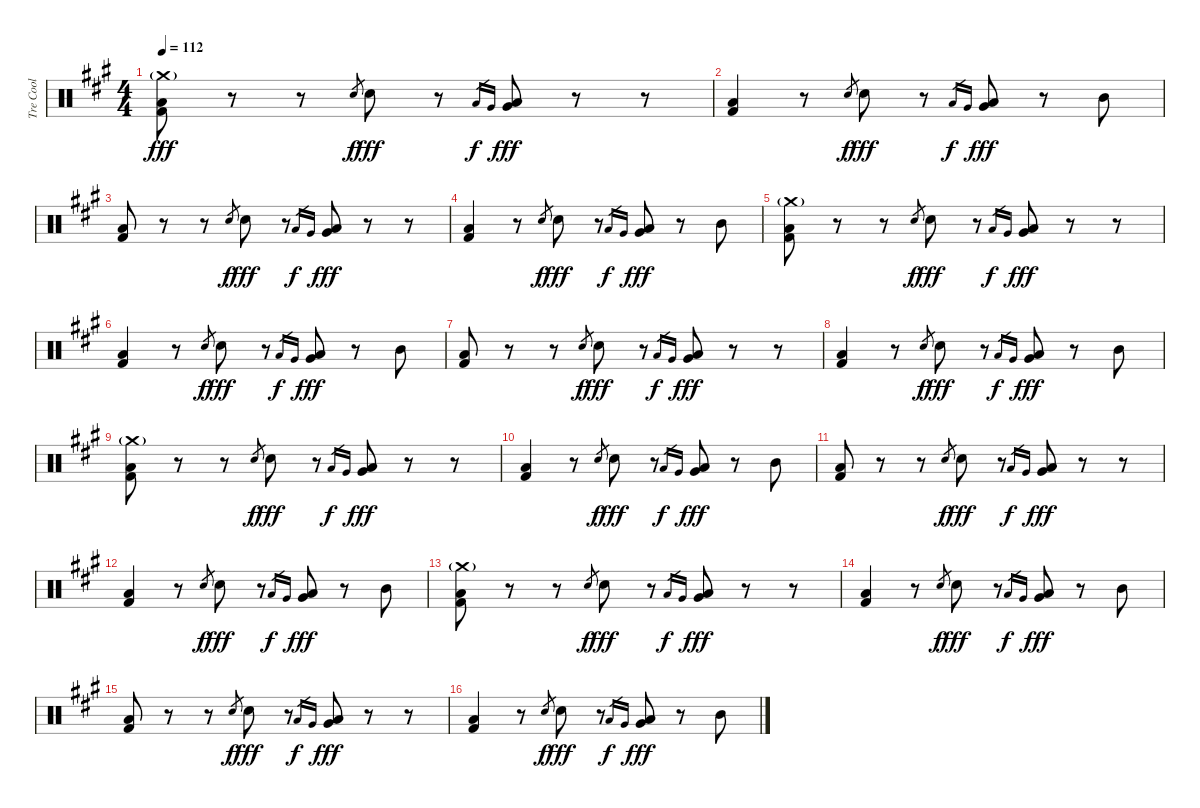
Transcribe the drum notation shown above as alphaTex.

\track ("Tre Cool" "Tre Cool") {instrument percussion}
\staff {score}
\articulation defaults
\ts (4 4)
\tempo 112
\clef neutral
\ks a
("Crash medium (hit)"{g} "Low Floor Tom (hit)" "Kick (hit) 2").8{dy fff} r.8 r.8 "Electric Snare (hit)".8{gr dy f} "Electric Snare (hit)".8{dy fff} r.8 "Low Floor Tom (hit)".16{gr dy f} "Very Low Tom (hit)".16{gr} ("Low Floor Tom (hit)" "Very Low Tom (hit)").8{dy fff} r.8 r.8 |
("Low Floor Tom (hit)" "Kick (hit) 2").4 r.8 "Electric Snare (hit)".8{gr dy f} "Electric Snare (hit)".8{dy fff} r.8 "Low Floor Tom (hit)".16{gr dy f} "Very Low Tom (hit)".16{gr} ("Low Floor Tom (hit)" "Very Low Tom (hit)").8{dy fff} r.8 "Mid Tom (hit)".8 |
("Low Floor Tom (hit)" "Kick (hit) 2").8 r.8 r.8 "Electric Snare (hit)".8{gr dy f} "Electric Snare (hit)".8{dy fff} r.8 "Low Floor Tom (hit)".16{gr dy f} "Very Low Tom (hit)".16{gr} ("Low Floor Tom (hit)" "Very Low Tom (hit)").8{dy fff} r.8 r.8 |
("Low Floor Tom (hit)" "Kick (hit) 2").4 r.8 "Electric Snare (hit)".8{gr dy f} "Electric Snare (hit)".8{dy fff} r.8 "Low Floor Tom (hit)".16{gr dy f} "Very Low Tom (hit)".16{gr} ("Low Floor Tom (hit)" "Very Low Tom (hit)").8{dy fff} r.8 "Mid Tom (hit)".8 |
("Crash medium (hit)"{g} "Low Floor Tom (hit)" "Kick (hit) 2").8 r.8 r.8 "Electric Snare (hit)".8{gr dy f} "Electric Snare (hit)".8{dy fff} r.8 "Low Floor Tom (hit)".16{gr dy f} "Very Low Tom (hit)".16{gr} ("Low Floor Tom (hit)" "Very Low Tom (hit)").8{dy fff} r.8 r.8 |
("Low Floor Tom (hit)" "Kick (hit) 2").4 r.8 "Electric Snare (hit)".8{gr dy f} "Electric Snare (hit)".8{dy fff} r.8 "Low Floor Tom (hit)".16{gr dy f} "Very Low Tom (hit)".16{gr} ("Low Floor Tom (hit)" "Very Low Tom (hit)").8{dy fff} r.8 "Mid Tom (hit)".8 |
("Low Floor Tom (hit)" "Kick (hit) 2").8 r.8 r.8 "Electric Snare (hit)".8{gr dy f} "Electric Snare (hit)".8{dy fff} r.8 "Low Floor Tom (hit)".16{gr dy f} "Very Low Tom (hit)".16{gr} ("Low Floor Tom (hit)" "Very Low Tom (hit)").8{dy fff} r.8 r.8 |
("Low Floor Tom (hit)" "Kick (hit) 2").4 r.8 "Electric Snare (hit)".8{gr dy f} "Electric Snare (hit)".8{dy fff} r.8 "Low Floor Tom (hit)".16{gr dy f} "Very Low Tom (hit)".16{gr} ("Low Floor Tom (hit)" "Very Low Tom (hit)").8{dy fff} r.8 "Mid Tom (hit)".8 |
("Crash medium (hit)"{g} "Low Floor Tom (hit)" "Kick (hit) 2").8 r.8 r.8 "Electric Snare (hit)".8{gr dy f} "Electric Snare (hit)".8{dy fff} r.8 "Low Floor Tom (hit)".16{gr dy f} "Very Low Tom (hit)".16{gr} ("Low Floor Tom (hit)" "Very Low Tom (hit)").8{dy fff} r.8 r.8 |
("Low Floor Tom (hit)" "Kick (hit) 2").4 r.8 "Electric Snare (hit)".8{gr dy f} "Electric Snare (hit)".8{dy fff} r.8 "Low Floor Tom (hit)".16{gr dy f} "Very Low Tom (hit)".16{gr} ("Low Floor Tom (hit)" "Very Low Tom (hit)").8{dy fff} r.8 "Mid Tom (hit)".8 |
("Low Floor Tom (hit)" "Kick (hit) 2").8 r.8 r.8 "Electric Snare (hit)".8{gr dy f} "Electric Snare (hit)".8{dy fff} r.8 "Low Floor Tom (hit)".16{gr dy f} "Very Low Tom (hit)".16{gr} ("Low Floor Tom (hit)" "Very Low Tom (hit)").8{dy fff} r.8 r.8 |
("Low Floor Tom (hit)" "Kick (hit) 2").4 r.8 "Electric Snare (hit)".8{gr dy f} "Electric Snare (hit)".8{dy fff} r.8 "Low Floor Tom (hit)".16{gr dy f} "Very Low Tom (hit)".16{gr} ("Low Floor Tom (hit)" "Very Low Tom (hit)").8{dy fff} r.8 "Mid Tom (hit)".8 |
("Crash medium (hit)"{g} "Low Floor Tom (hit)" "Kick (hit) 2").8 r.8 r.8 "Electric Snare (hit)".8{gr dy f} "Electric Snare (hit)".8{dy fff} r.8 "Low Floor Tom (hit)".16{gr dy f} "Very Low Tom (hit)".16{gr} ("Low Floor Tom (hit)" "Very Low Tom (hit)").8{dy fff} r.8 r.8 |
("Low Floor Tom (hit)" "Kick (hit) 2").4 r.8 "Electric Snare (hit)".8{gr dy f} "Electric Snare (hit)".8{dy fff} r.8 "Low Floor Tom (hit)".16{gr dy f} "Very Low Tom (hit)".16{gr} ("Low Floor Tom (hit)" "Very Low Tom (hit)").8{dy fff} r.8 "Mid Tom (hit)".8 |
("Low Floor Tom (hit)" "Kick (hit) 2").8 r.8 r.8 "Electric Snare (hit)".8{gr dy f} "Electric Snare (hit)".8{dy fff} r.8 "Low Floor Tom (hit)".16{gr dy f} "Very Low Tom (hit)".16{gr} ("Low Floor Tom (hit)" "Very Low Tom (hit)").8{dy fff} r.8 r.8 |
("Low Floor Tom (hit)" "Kick (hit) 2").4 r.8 "Electric Snare (hit)".8{gr dy f} "Electric Snare (hit)".8{dy fff} r.8 "Low Floor Tom (hit)".16{gr dy f} "Very Low Tom (hit)".16{gr} ("Low Floor Tom (hit)" "Very Low Tom (hit)").8{dy fff} r.8 "Mid Tom (hit)".8
